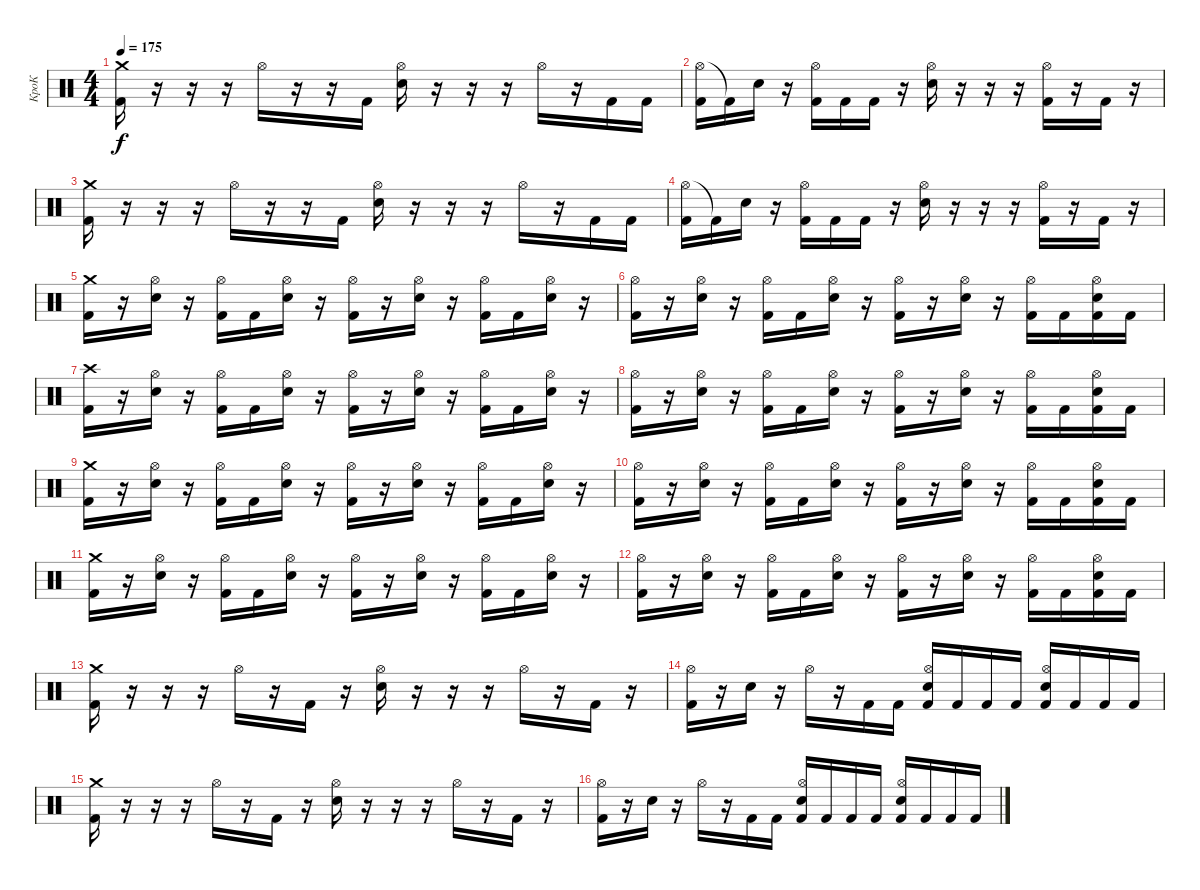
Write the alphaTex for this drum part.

\track ("КроК" "КроК") {instrument percussion}
\staff {score}
\articulation defaults
\ts (4 4)
\tempo 175
\clef neutral
\ks c
("Crash medium (hit)" "Kick (hit) 2").16{dy f} r.16 r.16 r.16 "Hi-Hat (open)".16 r.16 r.16 "Kick (hit) 2".16 ("Hi-Hat (open)" "Electric Snare (hit)").16 r.16 r.16 r.16 "Hi-Hat (open)".16 r.16 "Kick (hit) 2".16 "Kick (hit) 2".16 |
("Hi-Hat (open)" "Kick (hit) 2").16 "Kick (hit) 2"{t}.16 "Electric Snare (hit)".16 r.16 ("Hi-Hat (open)" "Kick (hit) 2").16 "Kick (hit) 2".16 "Kick (hit) 2".16 r.16 ("Hi-Hat (open)" "Electric Snare (hit)").16 r.16 r.16 r.16 ("Hi-Hat (open)" "Kick (hit) 2").16 r.16 "Kick (hit) 2".16 r.16 |
("Crash medium (hit)" "Kick (hit) 2").16 r.16 r.16 r.16 "Hi-Hat (open)".16 r.16 r.16 "Kick (hit) 2".16 ("Hi-Hat (open)" "Electric Snare (hit)").16 r.16 r.16 r.16 "Hi-Hat (open)".16 r.16 "Kick (hit) 2".16 "Kick (hit) 2".16 |
("Hi-Hat (open)" "Kick (hit) 2").16 "Kick (hit) 2"{t}.16 "Electric Snare (hit)".16 r.16 ("Hi-Hat (open)" "Kick (hit) 2").16 "Kick (hit) 2".16 "Kick (hit) 2".16 r.16 ("Hi-Hat (open)" "Electric Snare (hit)").16 r.16 r.16 r.16 ("Hi-Hat (open)" "Kick (hit) 2").16 r.16 "Kick (hit) 2".16 r.16 |
("Crash medium (hit)" "Kick (hit) 2").16 r.16 ("Hi-Hat (open)" "Electric Snare (hit)").16 r.16 ("Hi-Hat (open)" "Kick (hit) 2").16 "Kick (hit) 2".16 ("Hi-Hat (open)" "Electric Snare (hit)").16 r.16 ("Hi-Hat (open)" "Kick (hit) 2").16 r.16 ("Hi-Hat (open)" "Electric Snare (hit)").16 r.16 ("Hi-Hat (open)" "Kick (hit) 2").16 "Kick (hit) 2".16 ("Hi-Hat (open)" "Electric Snare (hit)").16 r.16 |
("Hi-Hat (open)" "Kick (hit) 2").16 r.16 ("Hi-Hat (open)" "Electric Snare (hit)").16 r.16 ("Hi-Hat (open)" "Kick (hit) 2").16 "Kick (hit) 2".16 ("Hi-Hat (open)" "Electric Snare (hit)").16 r.16 ("Hi-Hat (open)" "Kick (hit) 2").16 r.16 ("Hi-Hat (open)" "Electric Snare (hit)").16 r.16 ("Hi-Hat (open)" "Kick (hit) 2").16 "Kick (hit) 2".16 ("Hi-Hat (open)" "Electric Snare (hit)" "Kick (hit) 2").16 "Kick (hit) 2".16 |
("Crash high (hit)" "Kick (hit) 2").16 r.16 ("Hi-Hat (open)" "Electric Snare (hit)").16 r.16 ("Hi-Hat (open)" "Kick (hit) 2").16 "Kick (hit) 2".16 ("Hi-Hat (open)" "Electric Snare (hit)").16 r.16 ("Hi-Hat (open)" "Kick (hit) 2").16 r.16 ("Hi-Hat (open)" "Electric Snare (hit)").16 r.16 ("Hi-Hat (open)" "Kick (hit) 2").16 "Kick (hit) 2".16 ("Hi-Hat (open)" "Electric Snare (hit)").16 r.16 |
("Hi-Hat (open)" "Kick (hit) 2").16 r.16 ("Hi-Hat (open)" "Electric Snare (hit)").16 r.16 ("Hi-Hat (open)" "Kick (hit) 2").16 "Kick (hit) 2".16 ("Hi-Hat (open)" "Electric Snare (hit)").16 r.16 ("Hi-Hat (open)" "Kick (hit) 2").16 r.16 ("Hi-Hat (open)" "Electric Snare (hit)").16 r.16 ("Hi-Hat (open)" "Kick (hit) 2").16 "Kick (hit) 2".16 ("Hi-Hat (open)" "Electric Snare (hit)" "Kick (hit) 2").16 "Kick (hit) 2".16 |
("Crash medium (hit)" "Kick (hit) 2").16 r.16 ("Hi-Hat (open)" "Electric Snare (hit)").16 r.16 ("Hi-Hat (open)" "Kick (hit) 2").16 "Kick (hit) 2".16 ("Hi-Hat (open)" "Electric Snare (hit)").16 r.16 ("Hi-Hat (open)" "Kick (hit) 2").16 r.16 ("Hi-Hat (open)" "Electric Snare (hit)").16 r.16 ("Hi-Hat (open)" "Kick (hit) 2").16 "Kick (hit) 2".16 ("Hi-Hat (open)" "Electric Snare (hit)").16 r.16 |
("Hi-Hat (open)" "Kick (hit) 2").16 r.16 ("Hi-Hat (open)" "Electric Snare (hit)").16 r.16 ("Hi-Hat (open)" "Kick (hit) 2").16 "Kick (hit) 2".16 ("Hi-Hat (open)" "Electric Snare (hit)").16 r.16 ("Hi-Hat (open)" "Kick (hit) 2").16 r.16 ("Hi-Hat (open)" "Electric Snare (hit)").16 r.16 ("Hi-Hat (open)" "Kick (hit) 2").16 "Kick (hit) 2".16 ("Hi-Hat (open)" "Electric Snare (hit)" "Kick (hit) 2").16 "Kick (hit) 2".16 |
("Crash medium (hit)" "Kick (hit) 2").16 r.16 ("Hi-Hat (open)" "Electric Snare (hit)").16 r.16 ("Hi-Hat (open)" "Kick (hit) 2").16 "Kick (hit) 2".16 ("Hi-Hat (open)" "Electric Snare (hit)").16 r.16 ("Hi-Hat (open)" "Kick (hit) 2").16 r.16 ("Hi-Hat (open)" "Electric Snare (hit)").16 r.16 ("Hi-Hat (open)" "Kick (hit) 2").16 "Kick (hit) 2".16 ("Hi-Hat (open)" "Electric Snare (hit)").16 r.16 |
("Hi-Hat (open)" "Kick (hit) 2").16 r.16 ("Hi-Hat (open)" "Electric Snare (hit)").16 r.16 ("Hi-Hat (open)" "Kick (hit) 2").16 "Kick (hit) 2".16 ("Hi-Hat (open)" "Electric Snare (hit)").16 r.16 ("Hi-Hat (open)" "Kick (hit) 2").16 r.16 ("Hi-Hat (open)" "Electric Snare (hit)").16 r.16 ("Hi-Hat (open)" "Kick (hit) 2").16 "Kick (hit) 2".16 ("Hi-Hat (open)" "Electric Snare (hit)" "Kick (hit) 2").16 "Kick (hit) 2".16 |
("Crash medium (hit)" "Kick (hit) 2").16 r.16 r.16 r.16 "Hi-Hat (open)".16 r.16 "Kick (hit) 2".16 r.16 ("Hi-Hat (open)" "Electric Snare (hit)").16 r.16 r.16 r.16 "Hi-Hat (open)".16 r.16 "Kick (hit) 2".16 r.16 |
("Hi-Hat (open)" "Kick (hit) 2").16 r.16 "Electric Snare (hit)".16 r.16 "Hi-Hat (open)".16 r.16 "Kick (hit) 2".16 "Kick (hit) 2".16 ("Hi-Hat (open)" "Electric Snare (hit)" "Kick (hit) 2").16 "Kick (hit) 2".16 "Kick (hit) 2".16 "Kick (hit) 2".16 ("Hi-Hat (open)" "Electric Snare (hit)" "Kick (hit) 2").16 "Kick (hit) 2".16 "Kick (hit) 2".16 "Kick (hit) 2".16 |
("Crash medium (hit)" "Kick (hit) 2").16 r.16 r.16 r.16 "Hi-Hat (open)".16 r.16 "Kick (hit) 2".16 r.16 ("Hi-Hat (open)" "Electric Snare (hit)").16 r.16 r.16 r.16 "Hi-Hat (open)".16 r.16 "Kick (hit) 2".16 r.16 |
("Hi-Hat (open)" "Kick (hit) 2").16 r.16 "Electric Snare (hit)".16 r.16 "Hi-Hat (open)".16 r.16 "Kick (hit) 2".16 "Kick (hit) 2".16 ("Hi-Hat (open)" "Electric Snare (hit)" "Kick (hit) 2").16 "Kick (hit) 2".16 "Kick (hit) 2".16 "Kick (hit) 2".16 ("Hi-Hat (open)" "Electric Snare (hit)" "Kick (hit) 2").16 "Kick (hit) 2".16 "Kick (hit) 2".16 "Kick (hit) 2".16
